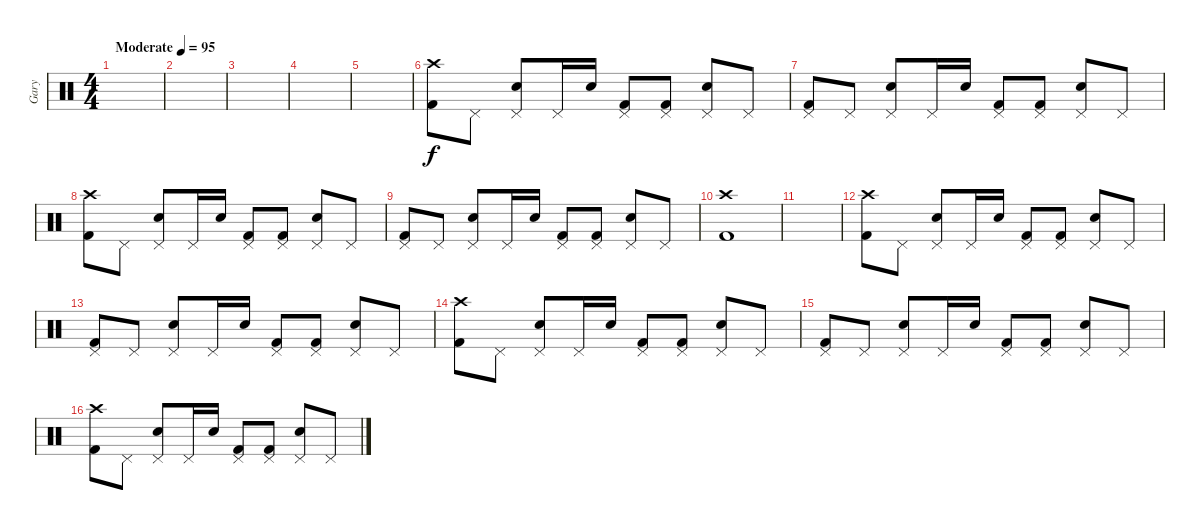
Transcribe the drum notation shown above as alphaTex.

\track ("Gary" "Gary") {instrument percussion}
\staff {score}
\articulation defaults
\ts (4 4)
\tempo (95 "Moderate")
\clef neutral
\ks c
|
|
|
|
|
("Crash high (hit)" "Kick (hit) 2").8 "Pedal Hi-Hat (hit)".8 ("Pedal Hi-Hat (hit)" "Electric Snare (hit)").8 "Pedal Hi-Hat (hit)".16 "Electric Snare (hit)".16 ("Pedal Hi-Hat (hit)" "Kick (hit) 2").8 ("Pedal Hi-Hat (hit)" "Kick (hit) 2").8 ("Pedal Hi-Hat (hit)" "Electric Snare (hit)").8 "Pedal Hi-Hat (hit)".8 |
("Pedal Hi-Hat (hit)" "Kick (hit) 2").8 "Pedal Hi-Hat (hit)".8 ("Pedal Hi-Hat (hit)" "Electric Snare (hit)").8 "Pedal Hi-Hat (hit)".16 "Electric Snare (hit)".16 ("Pedal Hi-Hat (hit)" "Kick (hit) 2").8 ("Pedal Hi-Hat (hit)" "Kick (hit) 2").8 ("Pedal Hi-Hat (hit)" "Electric Snare (hit)").8 "Pedal Hi-Hat (hit)".8 |
("Crash high (hit)" "Kick (hit) 2").8 "Pedal Hi-Hat (hit)".8 ("Pedal Hi-Hat (hit)" "Electric Snare (hit)").8 "Pedal Hi-Hat (hit)".16 "Electric Snare (hit)".16 ("Pedal Hi-Hat (hit)" "Kick (hit) 2").8 ("Pedal Hi-Hat (hit)" "Kick (hit) 2").8 ("Pedal Hi-Hat (hit)" "Electric Snare (hit)").8 "Pedal Hi-Hat (hit)".8 |
("Pedal Hi-Hat (hit)" "Kick (hit) 2").8 "Pedal Hi-Hat (hit)".8 ("Pedal Hi-Hat (hit)" "Electric Snare (hit)").8 "Pedal Hi-Hat (hit)".16 "Electric Snare (hit)".16 ("Pedal Hi-Hat (hit)" "Kick (hit) 2").8 ("Pedal Hi-Hat (hit)" "Kick (hit) 2").8 ("Pedal Hi-Hat (hit)" "Electric Snare (hit)").8 "Pedal Hi-Hat (hit)".8 |
("Crash high (hit)" "Kick (hit) 2").1 |
|
("Crash high (hit)" "Kick (hit) 2").8 "Pedal Hi-Hat (hit)".8 ("Pedal Hi-Hat (hit)" "Electric Snare (hit)").8 "Pedal Hi-Hat (hit)".16 "Electric Snare (hit)".16 ("Pedal Hi-Hat (hit)" "Kick (hit) 2").8 ("Pedal Hi-Hat (hit)" "Kick (hit) 2").8 ("Pedal Hi-Hat (hit)" "Electric Snare (hit)").8 "Pedal Hi-Hat (hit)".8 |
("Pedal Hi-Hat (hit)" "Kick (hit) 2").8 "Pedal Hi-Hat (hit)".8 ("Pedal Hi-Hat (hit)" "Electric Snare (hit)").8 "Pedal Hi-Hat (hit)".16 "Electric Snare (hit)".16 ("Pedal Hi-Hat (hit)" "Kick (hit) 2").8 ("Pedal Hi-Hat (hit)" "Kick (hit) 2").8 ("Pedal Hi-Hat (hit)" "Electric Snare (hit)").8 "Pedal Hi-Hat (hit)".8 |
("Crash high (hit)" "Kick (hit) 2").8 "Pedal Hi-Hat (hit)".8 ("Pedal Hi-Hat (hit)" "Electric Snare (hit)").8 "Pedal Hi-Hat (hit)".16 "Electric Snare (hit)".16 ("Pedal Hi-Hat (hit)" "Kick (hit) 2").8 ("Pedal Hi-Hat (hit)" "Kick (hit) 2").8 ("Pedal Hi-Hat (hit)" "Electric Snare (hit)").8 "Pedal Hi-Hat (hit)".8 |
("Pedal Hi-Hat (hit)" "Kick (hit) 2").8 "Pedal Hi-Hat (hit)".8 ("Pedal Hi-Hat (hit)" "Electric Snare (hit)").8 "Pedal Hi-Hat (hit)".16 "Electric Snare (hit)".16 ("Pedal Hi-Hat (hit)" "Kick (hit) 2").8 ("Pedal Hi-Hat (hit)" "Kick (hit) 2").8 ("Pedal Hi-Hat (hit)" "Electric Snare (hit)").8 "Pedal Hi-Hat (hit)".8 |
("Crash high (hit)" "Kick (hit) 2").8 "Pedal Hi-Hat (hit)".8 ("Pedal Hi-Hat (hit)" "Electric Snare (hit)").8 "Pedal Hi-Hat (hit)".16 "Electric Snare (hit)".16 ("Pedal Hi-Hat (hit)" "Kick (hit) 2").8 ("Pedal Hi-Hat (hit)" "Kick (hit) 2").8 ("Pedal Hi-Hat (hit)" "Electric Snare (hit)").8 "Pedal Hi-Hat (hit)".8
